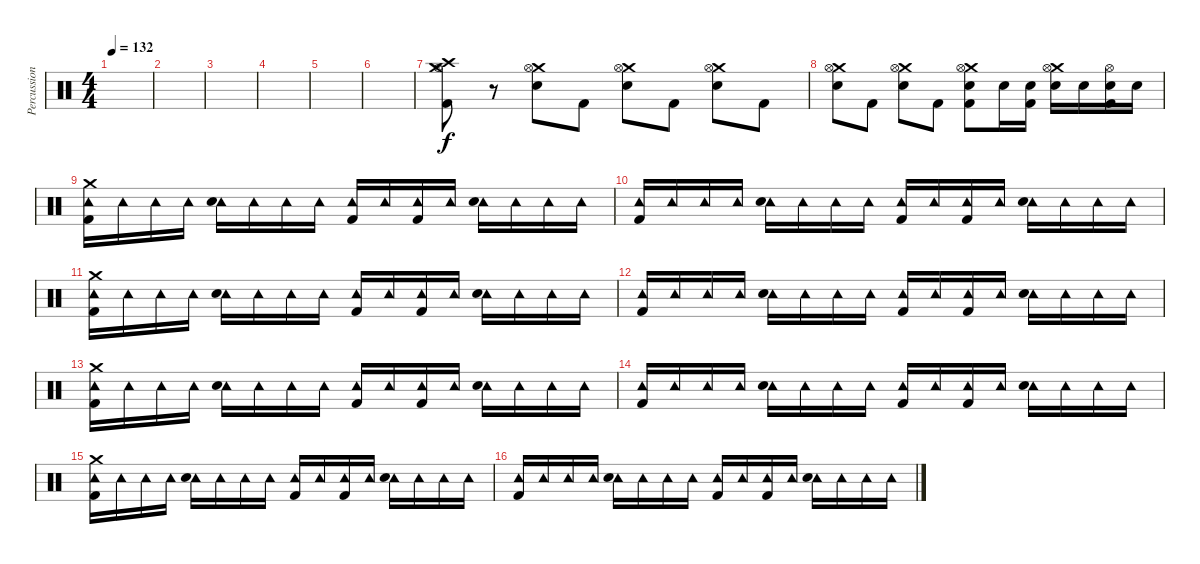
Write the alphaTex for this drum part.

\track ("Percussion" "Percussion") {instrument percussion}
\staff {score}
\articulation defaults
\ts (4 4)
\tempo 132
\clef neutral
\ks c
|
|
|
|
|
|
("Crash medium (hit)" "Crash high (hit)" "Hi-Hat (open)" "Kick (hit) 2").8 r.8 ("Crash medium (hit)" "Hi-Hat (open)" "Snare (hit) 2").8 "Kick (hit) 2".8 ("Crash medium (hit)" "Hi-Hat (open)" "Snare (hit) 2").8 "Kick (hit) 2".8 ("Crash medium (hit)" "Hi-Hat (open)" "Snare (hit) 2").8 "Kick (hit) 2".8 |
("Crash medium (hit)" "Hi-Hat (open)" "Snare (hit) 2").8 "Kick (hit) 2".8 ("Crash medium (hit)" "Hi-Hat (open)" "Snare (hit) 2").8 "Kick (hit) 2".8 ("Crash medium (hit)" "Hi-Hat (open)" "Snare (hit) 2" "Kick (hit) 2").8 "Snare (hit) 2".16 ("Snare (hit) 2" "Kick (hit) 2").16 ("Crash medium (hit)" "Hi-Hat (open)" "Snare (hit) 2").16 "Snare (hit) 2".16 ("Hi-Hat (open)" "Snare (hit) 2" "Kick (hit) 2").16 "Snare (hit) 2".16 |
("Crash medium (hit)" "Tambourine (hit)" "Kick (hit) 2").16 "Tambourine (hit)".16 "Tambourine (hit)".16 "Tambourine (hit)".16 ("Tambourine (hit)" "Snare (hit) 2").16 "Tambourine (hit)".16 "Tambourine (hit)".16 "Tambourine (hit)".16 ("Tambourine (hit)" "Kick (hit) 2").16 "Tambourine (hit)".16 ("Tambourine (hit)" "Kick (hit) 2").16 "Tambourine (hit)".16 ("Tambourine (hit)" "Snare (hit) 2").16 "Tambourine (hit)".16 "Tambourine (hit)".16 "Tambourine (hit)".16 |
("Tambourine (hit)" "Kick (hit) 2").16 "Tambourine (hit)".16 "Tambourine (hit)".16 "Tambourine (hit)".16 ("Tambourine (hit)" "Snare (hit) 2").16 "Tambourine (hit)".16 "Tambourine (hit)".16 "Tambourine (hit)".16 ("Tambourine (hit)" "Kick (hit) 2").16 "Tambourine (hit)".16 ("Tambourine (hit)" "Kick (hit) 2").16 "Tambourine (hit)".16 ("Tambourine (hit)" "Snare (hit) 2").16 "Tambourine (hit)".16 "Tambourine (hit)".16 "Tambourine (hit)".16 |
("Crash medium (hit)" "Tambourine (hit)" "Kick (hit) 2").16 "Tambourine (hit)".16 "Tambourine (hit)".16 "Tambourine (hit)".16 ("Tambourine (hit)" "Snare (hit) 2").16 "Tambourine (hit)".16 "Tambourine (hit)".16 "Tambourine (hit)".16 ("Tambourine (hit)" "Kick (hit) 2").16 "Tambourine (hit)".16 ("Tambourine (hit)" "Kick (hit) 2").16 "Tambourine (hit)".16 ("Tambourine (hit)" "Snare (hit) 2").16 "Tambourine (hit)".16 "Tambourine (hit)".16 "Tambourine (hit)".16 |
("Tambourine (hit)" "Kick (hit) 2").16 "Tambourine (hit)".16 "Tambourine (hit)".16 "Tambourine (hit)".16 ("Tambourine (hit)" "Snare (hit) 2").16 "Tambourine (hit)".16 "Tambourine (hit)".16 "Tambourine (hit)".16 ("Tambourine (hit)" "Kick (hit) 2").16 "Tambourine (hit)".16 ("Tambourine (hit)" "Kick (hit) 2").16 "Tambourine (hit)".16 ("Tambourine (hit)" "Snare (hit) 2").16 "Tambourine (hit)".16 "Tambourine (hit)".16 "Tambourine (hit)".16 |
("Crash medium (hit)" "Tambourine (hit)" "Kick (hit) 2").16 "Tambourine (hit)".16 "Tambourine (hit)".16 "Tambourine (hit)".16 ("Tambourine (hit)" "Snare (hit) 2").16 "Tambourine (hit)".16 "Tambourine (hit)".16 "Tambourine (hit)".16 ("Tambourine (hit)" "Kick (hit) 2").16 "Tambourine (hit)".16 ("Tambourine (hit)" "Kick (hit) 2").16 "Tambourine (hit)".16 ("Tambourine (hit)" "Snare (hit) 2").16 "Tambourine (hit)".16 "Tambourine (hit)".16 "Tambourine (hit)".16 |
("Tambourine (hit)" "Kick (hit) 2").16 "Tambourine (hit)".16 "Tambourine (hit)".16 "Tambourine (hit)".16 ("Tambourine (hit)" "Snare (hit) 2").16 "Tambourine (hit)".16 "Tambourine (hit)".16 "Tambourine (hit)".16 ("Tambourine (hit)" "Kick (hit) 2").16 "Tambourine (hit)".16 ("Tambourine (hit)" "Kick (hit) 2").16 "Tambourine (hit)".16 ("Tambourine (hit)" "Snare (hit) 2").16 "Tambourine (hit)".16 "Tambourine (hit)".16 "Tambourine (hit)".16 |
("Crash medium (hit)" "Tambourine (hit)" "Kick (hit) 2").16 "Tambourine (hit)".16 "Tambourine (hit)".16 "Tambourine (hit)".16 ("Tambourine (hit)" "Snare (hit) 2").16 "Tambourine (hit)".16 "Tambourine (hit)".16 "Tambourine (hit)".16 ("Tambourine (hit)" "Kick (hit) 2").16 "Tambourine (hit)".16 ("Tambourine (hit)" "Kick (hit) 2").16 "Tambourine (hit)".16 ("Tambourine (hit)" "Snare (hit) 2").16 "Tambourine (hit)".16 "Tambourine (hit)".16 "Tambourine (hit)".16 |
("Tambourine (hit)" "Kick (hit) 2").16 "Tambourine (hit)".16 "Tambourine (hit)".16 "Tambourine (hit)".16 ("Tambourine (hit)" "Snare (hit) 2").16 "Tambourine (hit)".16 "Tambourine (hit)".16 "Tambourine (hit)".16 ("Tambourine (hit)" "Kick (hit) 2").16 "Tambourine (hit)".16 ("Tambourine (hit)" "Kick (hit) 2").16 "Tambourine (hit)".16 ("Tambourine (hit)" "Snare (hit) 2").16 "Tambourine (hit)".16 "Tambourine (hit)".16 "Tambourine (hit)".16
